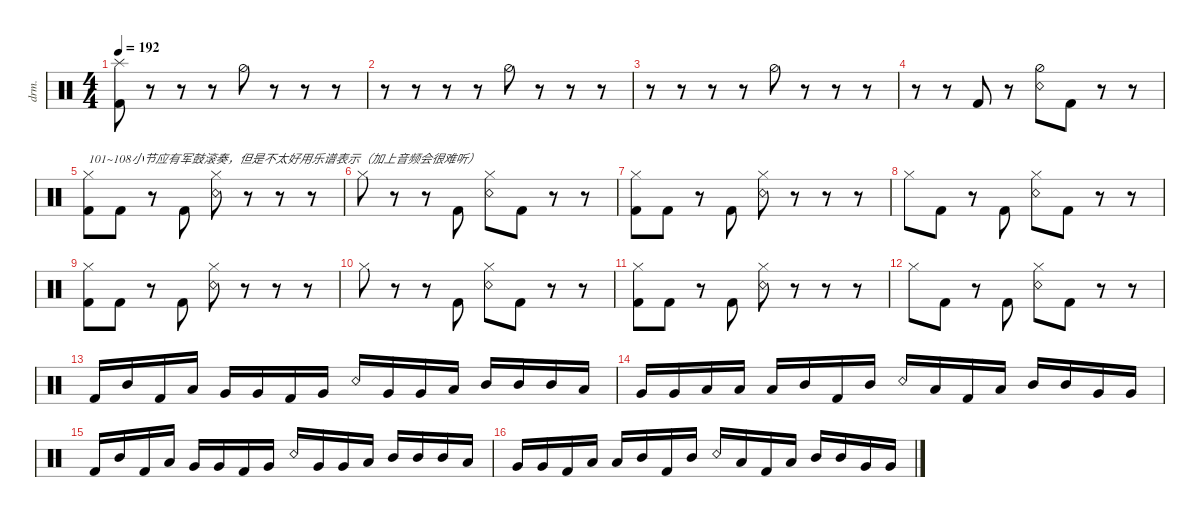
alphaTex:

\defaultSystemsLayout 4
\hideDynamics
\bracketExtendMode nobrackets
\otherSystemsTrackNameOrientation horizontal
\track ("Drumkit" "drm.") {instrument percussion}
\staff {score}
\articulation defaults
\ts (4 4)
\tempo 192
\clef neutral
\ks c
("Splash (hit)" "Kick (hit) 2").8{dy ff beam Down} r.8{beam Down} r.8{beam Down} r.8{beam Down} "Hi-Hat (half)".8{beam Down} r.8{beam Down} r.8{beam Down} r.8{beam Down} |
r.8{beam Down} r.8{beam Down} r.8{beam Down} r.8{beam Down} "Hi-Hat (half)".8{beam Down} r.8{beam Down} r.8{beam Down} r.8{beam Down} |
r.8{beam Down} r.8{beam Down} r.8{beam Down} r.8{beam Down} "Hi-Hat (half)".8{beam Down} r.8{beam Down} r.8{beam Down} r.8{beam Down} |
r.8{beam Down} r.8{beam Down} "Kick (hit) 2".8{beam Up} r.8{beam Up} ("Snare (rim shot)" "Hi-Hat (half)").8{beam Down} "Kick (hit) 2".8{beam Down} r.8{beam Down} r.8{beam Down} |
("Kick (hit) 2" "Hi-Hat (closed)").8{txt "101~108小节应有军鼓滚奏，但是不太好用乐谱表示（加上音频会很难听）" beam Down} "Kick (hit) 2".8{beam Down} r.8{beam Down} "Kick (hit) 2".8{beam Up} ("Snare (rim shot)" "Hi-Hat (closed)").8{beam Down} r.8{beam Down} r.8{beam Down} r.8{beam Down} |
"Hi-Hat (closed)".8{beam Down} r.8{beam Down} r.8{beam Down} "Kick (hit) 2".8{beam Up} ("Snare (rim shot)" "Hi-Hat (closed)").8{beam Down} "Kick (hit) 2".8{beam Down} r.8{beam Down} r.8{beam Down} |
("Kick (hit) 2" "Hi-Hat (closed)").8{beam Down} "Kick (hit) 2".8{beam Down} r.8{beam Down} "Kick (hit) 2".8{beam Up} ("Snare (rim shot)" "Hi-Hat (closed)").8{beam Down} r.8{beam Down} r.8{beam Down} r.8{beam Down} |
"Hi-Hat (closed)".8{beam Down} "Kick (hit) 2".8{beam Down} r.8{beam Down} "Kick (hit) 2".8{beam Up} ("Snare (rim shot)" "Hi-Hat (closed)").8{beam Down} "Kick (hit) 2".8{beam Down} r.8{beam Down} r.8{beam Down} |
("Kick (hit) 2" "Hi-Hat (closed)").8{beam Down} "Kick (hit) 2".8{beam Down} r.8{beam Down} "Kick (hit) 2".8{beam Up} ("Snare (rim shot)" "Hi-Hat (closed)").8{beam Down} r.8{beam Down} r.8{beam Down} r.8{beam Down} |
"Hi-Hat (closed)".8{beam Down} r.8{beam Down} r.8{beam Down} "Kick (hit) 2".8{beam Up} ("Snare (rim shot)" "Hi-Hat (closed)").8{beam Down} "Kick (hit) 2".8{beam Down} r.8{beam Down} r.8{beam Down} |
("Kick (hit) 2" "Hi-Hat (closed)").8{beam Down} "Kick (hit) 2".8{beam Down} r.8{beam Down} "Kick (hit) 2".8{beam Up} ("Snare (rim shot)" "Hi-Hat (closed)").8{beam Down} r.8{beam Down} r.8{beam Down} r.8{beam Down} |
"Hi-Hat (closed)".8{beam Down} "Kick (hit) 2".8{beam Down} r.8{beam Down} "Kick (hit) 2".8{beam Up} ("Snare (rim shot)" "Hi-Hat (closed)").8{beam Down} "Kick (hit) 2".8{beam Down} r.8{beam Down} r.8{beam Down} |
"Kick (hit) 2".16{beam Up} "Mid Tom (hit)".16{beam Up} "Kick (hit) 2".16{beam Up} "Low Tom (hit)".16{beam Up} "Very Low Tom (hit)".16{beam Up} "Very Low Tom (hit)".16{beam Up} "Kick (hit) 2".16{beam Up} "Very Low Tom (hit)".16{beam Up} "Snare (rim shot)".16{beam Up} "Very Low Tom (hit)".16{beam Up} "Very Low Tom (hit)".16{beam Up} "Low Tom (hit)".16{beam Up} "Mid Tom (hit)".16{beam Up} "Mid Tom (hit)".16{beam Up} "Mid Tom (hit)".16{beam Up} "Low Tom (hit)".16{beam Up} |
"Very Low Tom (hit)".16{beam Up} "Very Low Tom (hit)".16{beam Up} "Low Tom (hit)".16{beam Up} "Low Tom (hit)".16{beam Up} "Low Tom (hit)".16{beam Up} "Mid Tom (hit)".16{beam Up} "Kick (hit) 2".16{beam Up} "Mid Tom (hit)".16{beam Up} "Snare (rim shot)".16{beam Up} "Low Tom (hit)".16{beam Up} "Kick (hit) 2".16{beam Up} "Low Tom (hit)".16{beam Up} "Mid Tom (hit)".16{beam Up} "Mid Tom (hit)".16{beam Up} "Very Low Tom (hit)".16{beam Up} "Very Low Tom (hit)".16{beam Up} |
"Kick (hit) 2".16{beam Up} "Mid Tom (hit)".16{beam Up} "Kick (hit) 2".16{beam Up} "Low Tom (hit)".16{beam Up} "Very Low Tom (hit)".16{beam Up} "Very Low Tom (hit)".16{beam Up} "Kick (hit) 2".16{beam Up} "Very Low Tom (hit)".16{beam Up} "Snare (rim shot)".16{beam Up} "Very Low Tom (hit)".16{beam Up} "Very Low Tom (hit)".16{beam Up} "Low Tom (hit)".16{beam Up} "Mid Tom (hit)".16{beam Up} "Mid Tom (hit)".16{beam Up} "Mid Tom (hit)".16{beam Up} "Low Tom (hit)".16{beam Up} |
"Very Low Tom (hit)".16{beam Up} "Very Low Tom (hit)".16{beam Up} "Kick (hit) 2".16{beam Up} "Low Tom (hit)".16{beam Up} "Low Tom (hit)".16{beam Up} "Mid Tom (hit)".16{beam Up} "Kick (hit) 2".16{beam Up} "Mid Tom (hit)".16{beam Up} "Snare (rim shot)".16{beam Up} "Low Tom (hit)".16{beam Up} "Kick (hit) 2".16{beam Up} "Low Tom (hit)".16{beam Up} "Mid Tom (hit)".16{beam Up} "Mid Tom (hit)".16{beam Up} "Very Low Tom (hit)".16{beam Up} "Very Low Tom (hit)".16{beam Up}
